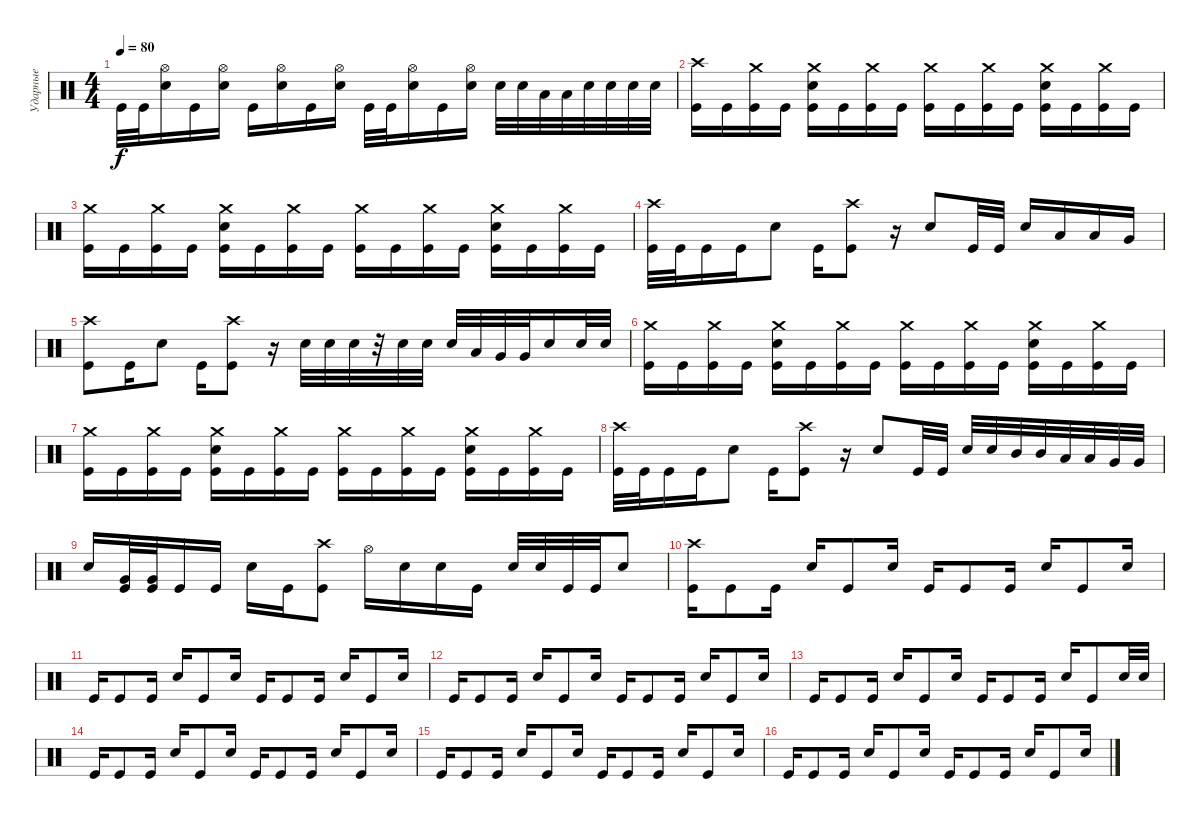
\track ("Ударные" "Ударные") {instrument percussion}
\staff {score}
\articulation defaults
\ts (4 4)
\tempo 80
\clef neutral
\ks c "Kick (hit)".32{dy f} "Kick (hit)".32
("Snare (hit) 2" "Hi-Hat (open)").16 "Kick (hit)".16 ("Snare (hit) 2" "Hi-Hat (open)").16 "Kick (hit)".16 ("Snare (hit) 2" "Hi-Hat (open)").16 "Kick (hit)".16 ("Snare (hit) 2" "Hi-Hat (open)").16 "Kick (hit)".32 "Kick (hit)".32 ("Snare (hit) 2" "Hi-Hat (open)").16 "Kick (hit)".16 ("Snare (hit) 2" "Hi-Hat (open)").16 "Snare (hit) 2".32 "Snare (hit) 2".32 "Low Tom (hit)".32 "Low Tom (hit)".32 "Snare (hit) 2".32 "Snare (hit) 2".32 "Snare (hit) 2".32 "Snare (hit) 2".32 |
("Kick (hit)" "Crash high (hit)").16 "Kick (hit)".16 ("Kick (hit)" "Crash medium (hit)").16 "Kick (hit)".16 ("Kick (hit)" "Snare (hit) 2" "Crash medium (hit)").16 "Kick (hit)".16 ("Kick (hit)" "Crash medium (hit)").16 "Kick (hit)".16 ("Kick (hit)" "Crash medium (hit)").16 "Kick (hit)".16 ("Kick (hit)" "Crash medium (hit)").16 "Kick (hit)".16 ("Kick (hit)" "Snare (hit) 2" "Crash medium (hit)").16 "Kick (hit)".16 ("Kick (hit)" "Crash medium (hit)").16 "Kick (hit)".16 |
("Kick (hit)" "Crash medium (hit)").16 "Kick (hit)".16 ("Kick (hit)" "Crash medium (hit)").16 "Kick (hit)".16 ("Kick (hit)" "Snare (hit) 2" "Crash medium (hit)").16 "Kick (hit)".16 ("Kick (hit)" "Crash medium (hit)").16 "Kick (hit)".16 ("Kick (hit)" "Crash medium (hit)").16 "Kick (hit)".16 ("Kick (hit)" "Crash medium (hit)").16 "Kick (hit)".16 ("Kick (hit)" "Snare (hit) 2" "Crash medium (hit)").16 "Kick (hit)".16 ("Kick (hit)" "Crash medium (hit)").16 "Kick (hit)".16 |
("Kick (hit)" "Crash high (hit)").32 "Kick (hit)".32 "Kick (hit)".16 "Kick (hit)".16 "Snare (hit) 2".8 "Kick (hit)".16 ("Kick (hit)" "Crash high (hit)").8 r.16 "Snare (hit) 2".8 "Kick (hit)".32 "Kick (hit)".32 "Snare (hit) 2".16 "Low Tom (hit)".16 "Low Tom (hit)".16 "Very Low Tom (hit)".16 |
("Kick (hit)" "Crash high (hit)").8 "Kick (hit)".16 "Snare (hit) 2".8 "Kick (hit)".16 ("Kick (hit)" "Crash high (hit)").8 r.16 "Snare (hit) 2".32 "Snare (hit) 2".32 "Snare (hit) 2".32 r.32 "Snare (hit) 2".32 "Snare (hit) 2".32 "Snare (hit) 2".32 "Low Tom (hit)".32 "Very Low Tom (hit)".32 "Very Low Tom (hit)".32 "Snare (hit) 2".16 "Snare (hit) 2".32 "Snare (hit) 2".32 |
("Kick (hit)" "Crash medium (hit)").16 "Kick (hit)".16 ("Kick (hit)" "Crash medium (hit)").16 "Kick (hit)".16 ("Kick (hit)" "Snare (hit) 2" "Crash medium (hit)").16 "Kick (hit)".16 ("Kick (hit)" "Crash medium (hit)").16 "Kick (hit)".16 ("Kick (hit)" "Crash medium (hit)").16 "Kick (hit)".16 ("Kick (hit)" "Crash medium (hit)").16 "Kick (hit)".16 ("Kick (hit)" "Snare (hit) 2" "Crash medium (hit)").16 "Kick (hit)".16 ("Kick (hit)" "Crash medium (hit)").16 "Kick (hit)".16 |
("Kick (hit)" "Crash medium (hit)").16 "Kick (hit)".16 ("Kick (hit)" "Crash medium (hit)").16 "Kick (hit)".16 ("Kick (hit)" "Snare (hit) 2" "Crash medium (hit)").16 "Kick (hit)".16 ("Kick (hit)" "Crash medium (hit)").16 "Kick (hit)".16 ("Kick (hit)" "Crash medium (hit)").16 "Kick (hit)".16 ("Kick (hit)" "Crash medium (hit)").16 "Kick (hit)".16 ("Kick (hit)" "Snare (hit) 2" "Crash medium (hit)").16 "Kick (hit)".16 ("Kick (hit)" "Crash medium (hit)").16 "Kick (hit)".16 |
("Kick (hit)" "Crash high (hit)").32 "Kick (hit)".32 "Kick (hit)".16 "Kick (hit)".16 "Snare (hit) 2".8 "Kick (hit)".16 ("Kick (hit)" "Crash high (hit)").8 r.16 "Snare (hit) 2".8 "Kick (hit)".32 "Kick (hit)".32 "Snare (hit) 2".32 "Snare (hit) 2".32 "Mid Tom (hit)".32 "Mid Tom (hit)".32 "Low Tom (hit)".32 "Low Tom (hit)".32 "Very Low Tom (hit)".32 "Very Low Tom (hit)".32 |
"Snare (hit) 2".16 ("Kick (hit)" "Very Low Tom (hit)").32 ("Kick (hit)" "Very Low Tom (hit)").32 "Kick (hit)".16 "Kick (hit)".16 "Snare (hit) 2".16 "Kick (hit)".16 ("Kick (hit)" "Crash high (hit)").8 "Hi-Hat (open)".16 "Snare (hit) 2".16 "Snare (hit) 2".16 "Kick (hit)".16 "Snare (hit) 2".32 "Snare (hit) 2".32 "Kick (hit)".32 "Kick (hit)".32 "Snare (hit) 2".8 |
("Kick (hit)" "Crash high (hit)").16 "Kick (hit)".8 "Kick (hit)".16 "Snare (hit) 2".16 "Kick (hit)".8 "Snare (hit) 2".16 "Kick (hit)".16 "Kick (hit)".8 "Kick (hit)".16 "Snare (hit) 2".16 "Kick (hit)".8 "Snare (hit) 2".16 |
"Kick (hit)".16 "Kick (hit)".8 "Kick (hit)".16 "Snare (hit) 2".16 "Kick (hit)".8 "Snare (hit) 2".16 "Kick (hit)".16 "Kick (hit)".8 "Kick (hit)".16 "Snare (hit) 2".16 "Kick (hit)".8 "Snare (hit) 2".16 |
"Kick (hit)".16 "Kick (hit)".8 "Kick (hit)".16 "Snare (hit) 2".16 "Kick (hit)".8 "Snare (hit) 2".16 "Kick (hit)".16 "Kick (hit)".8 "Kick (hit)".16 "Snare (hit) 2".16 "Kick (hit)".8 "Snare (hit) 2".16 |
"Kick (hit)".16 "Kick (hit)".8 "Kick (hit)".16 "Snare (hit) 2".16 "Kick (hit)".8 "Snare (hit) 2".16 "Kick (hit)".16 "Kick (hit)".8 "Kick (hit)".16 "Snare (hit) 2".16 "Kick (hit)".8 "Snare (hit) 2".32 "Snare (hit) 2".32 |
"Kick (hit)".16 "Kick (hit)".8 "Kick (hit)".16 "Snare (hit) 2".16 "Kick (hit)".8 "Snare (hit) 2".16 "Kick (hit)".16 "Kick (hit)".8 "Kick (hit)".16 "Snare (hit) 2".16 "Kick (hit)".8 "Snare (hit) 2".16 |
"Kick (hit)".16 "Kick (hit)".8 "Kick (hit)".16 "Snare (hit) 2".16 "Kick (hit)".8 "Snare (hit) 2".16 "Kick (hit)".16 "Kick (hit)".8 "Kick (hit)".16 "Snare (hit) 2".16 "Kick (hit)".8 "Snare (hit) 2".16 |
"Kick (hit)".16 "Kick (hit)".8 "Kick (hit)".16 "Snare (hit) 2".16 "Kick (hit)".8 "Snare (hit) 2".16 "Kick (hit)".16 "Kick (hit)".8 "Kick (hit)".16 "Snare (hit) 2".16 "Kick (hit)".8 "Snare (hit) 2".16
